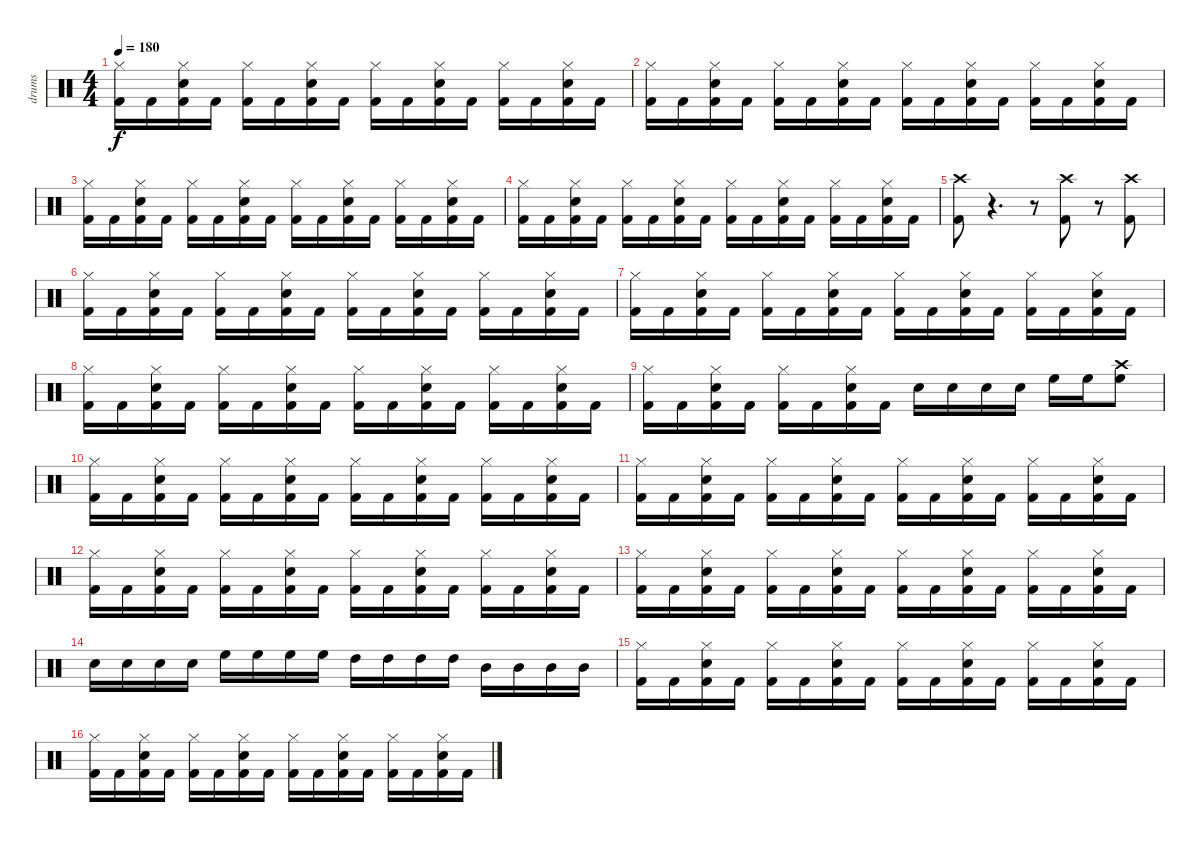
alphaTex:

\track ("drums" "drums") {instrument percussion}
\staff {score}
\articulation defaults
\ts (4 4)
\tempo 180
\clef neutral
\ks c
("Hi-Hat (closed)" "Kick (hit) 2").16{dy f} "Kick (hit) 2".16 ("Snare (hit) 2" "Hi-Hat (closed)" "Kick (hit) 2").16 "Kick (hit) 2".16 ("Hi-Hat (closed)" "Kick (hit) 2").16 "Kick (hit) 2".16 ("Snare (hit) 2" "Hi-Hat (closed)" "Kick (hit) 2").16 "Kick (hit) 2".16 ("Hi-Hat (closed)" "Kick (hit) 2").16 "Kick (hit) 2".16 ("Snare (hit) 2" "Hi-Hat (closed)" "Kick (hit) 2").16 "Kick (hit) 2".16 ("Hi-Hat (closed)" "Kick (hit) 2").16 "Kick (hit) 2".16 ("Snare (hit) 2" "Hi-Hat (closed)" "Kick (hit) 2").16 "Kick (hit) 2".16 |
("Hi-Hat (closed)" "Kick (hit) 2").16 "Kick (hit) 2".16 ("Snare (hit) 2" "Hi-Hat (closed)" "Kick (hit) 2").16 "Kick (hit) 2".16 ("Hi-Hat (closed)" "Kick (hit) 2").16 "Kick (hit) 2".16 ("Snare (hit) 2" "Hi-Hat (closed)" "Kick (hit) 2").16 "Kick (hit) 2".16 ("Hi-Hat (closed)" "Kick (hit) 2").16 "Kick (hit) 2".16 ("Snare (hit) 2" "Hi-Hat (closed)" "Kick (hit) 2").16 "Kick (hit) 2".16 ("Hi-Hat (closed)" "Kick (hit) 2").16 "Kick (hit) 2".16 ("Snare (hit) 2" "Hi-Hat (closed)" "Kick (hit) 2").16 "Kick (hit) 2".16 |
("Hi-Hat (closed)" "Kick (hit) 2").16 "Kick (hit) 2".16 ("Snare (hit) 2" "Hi-Hat (closed)" "Kick (hit) 2").16 "Kick (hit) 2".16 ("Hi-Hat (closed)" "Kick (hit) 2").16 "Kick (hit) 2".16 ("Snare (hit) 2" "Hi-Hat (closed)" "Kick (hit) 2").16 "Kick (hit) 2".16 ("Hi-Hat (closed)" "Kick (hit) 2").16 "Kick (hit) 2".16 ("Snare (hit) 2" "Hi-Hat (closed)" "Kick (hit) 2").16 "Kick (hit) 2".16 ("Hi-Hat (closed)" "Kick (hit) 2").16 "Kick (hit) 2".16 ("Snare (hit) 2" "Hi-Hat (closed)" "Kick (hit) 2").16 "Kick (hit) 2".16 |
("Hi-Hat (closed)" "Kick (hit) 2").16 "Kick (hit) 2".16 ("Snare (hit) 2" "Hi-Hat (closed)" "Kick (hit) 2").16 "Kick (hit) 2".16 ("Hi-Hat (closed)" "Kick (hit) 2").16 "Kick (hit) 2".16 ("Snare (hit) 2" "Hi-Hat (closed)" "Kick (hit) 2").16 "Kick (hit) 2".16 ("Hi-Hat (closed)" "Kick (hit) 2").16 "Kick (hit) 2".16 ("Snare (hit) 2" "Hi-Hat (closed)" "Kick (hit) 2").16 "Kick (hit) 2".16 ("Hi-Hat (closed)" "Kick (hit) 2").16 "Kick (hit) 2".16 ("Snare (hit) 2" "Hi-Hat (closed)" "Kick (hit) 2").16 "Kick (hit) 2".16 |
("Crash high (hit)" "Kick (hit) 2").8 r.4{d} r.8 ("Crash high (hit)" "Kick (hit) 2").8 r.8 ("Crash high (hit)" "Kick (hit) 2").8 |
("Hi-Hat (closed)" "Kick (hit) 2").16 "Kick (hit) 2".16 ("Snare (hit) 2" "Hi-Hat (closed)" "Kick (hit) 2").16 "Kick (hit) 2".16 ("Hi-Hat (closed)" "Kick (hit) 2").16 "Kick (hit) 2".16 ("Snare (hit) 2" "Hi-Hat (closed)" "Kick (hit) 2").16 "Kick (hit) 2".16 ("Hi-Hat (closed)" "Kick (hit) 2").16 "Kick (hit) 2".16 ("Snare (hit) 2" "Hi-Hat (closed)" "Kick (hit) 2").16 "Kick (hit) 2".16 ("Hi-Hat (closed)" "Kick (hit) 2").16 "Kick (hit) 2".16 ("Snare (hit) 2" "Hi-Hat (closed)" "Kick (hit) 2").16 "Kick (hit) 2".16 |
("Hi-Hat (closed)" "Kick (hit) 2").16 "Kick (hit) 2".16 ("Snare (hit) 2" "Hi-Hat (closed)" "Kick (hit) 2").16 "Kick (hit) 2".16 ("Hi-Hat (closed)" "Kick (hit) 2").16 "Kick (hit) 2".16 ("Snare (hit) 2" "Hi-Hat (closed)" "Kick (hit) 2").16 "Kick (hit) 2".16 ("Hi-Hat (closed)" "Kick (hit) 2").16 "Kick (hit) 2".16 ("Snare (hit) 2" "Hi-Hat (closed)" "Kick (hit) 2").16 "Kick (hit) 2".16 ("Hi-Hat (closed)" "Kick (hit) 2").16 "Kick (hit) 2".16 ("Snare (hit) 2" "Hi-Hat (closed)" "Kick (hit) 2").16 "Kick (hit) 2".16 |
("Hi-Hat (closed)" "Kick (hit) 2").16 "Kick (hit) 2".16 ("Snare (hit) 2" "Hi-Hat (closed)" "Kick (hit) 2").16 "Kick (hit) 2".16 ("Hi-Hat (closed)" "Kick (hit) 2").16 "Kick (hit) 2".16 ("Snare (hit) 2" "Hi-Hat (closed)" "Kick (hit) 2").16 "Kick (hit) 2".16 ("Hi-Hat (closed)" "Kick (hit) 2").16 "Kick (hit) 2".16 ("Snare (hit) 2" "Hi-Hat (closed)" "Kick (hit) 2").16 "Kick (hit) 2".16 ("Hi-Hat (closed)" "Kick (hit) 2").16 "Kick (hit) 2".16 ("Snare (hit) 2" "Hi-Hat (closed)" "Kick (hit) 2").16 "Kick (hit) 2".16 |
("Hi-Hat (closed)" "Kick (hit) 2").16 "Kick (hit) 2".16 ("Snare (hit) 2" "Hi-Hat (closed)" "Kick (hit) 2").16 "Kick (hit) 2".16 ("Hi-Hat (closed)" "Kick (hit) 2").16 "Kick (hit) 2".16 ("Snare (hit) 2" "Hi-Hat (closed)" "Kick (hit) 2").16 "Kick (hit) 2".16 "Snare (hit) 2".16 "Snare (hit) 2".16 "Snare (hit) 2".16 "Snare (hit) 2".16 "High Floor Tom (hit)".16 "High Floor Tom (hit)".16 ("Crash high (hit)" "High Floor Tom (hit)").8 |
("Hi-Hat (closed)" "Kick (hit) 2").16 "Kick (hit) 2".16 ("Snare (hit) 2" "Hi-Hat (closed)" "Kick (hit) 2").16 "Kick (hit) 2".16 ("Hi-Hat (closed)" "Kick (hit) 2").16 "Kick (hit) 2".16 ("Snare (hit) 2" "Hi-Hat (closed)" "Kick (hit) 2").16 "Kick (hit) 2".16 ("Hi-Hat (closed)" "Kick (hit) 2").16 "Kick (hit) 2".16 ("Snare (hit) 2" "Hi-Hat (closed)" "Kick (hit) 2").16 "Kick (hit) 2".16 ("Hi-Hat (closed)" "Kick (hit) 2").16 "Kick (hit) 2".16 ("Snare (hit) 2" "Hi-Hat (closed)" "Kick (hit) 2").16 "Kick (hit) 2".16 |
("Hi-Hat (closed)" "Kick (hit) 2").16 "Kick (hit) 2".16 ("Snare (hit) 2" "Hi-Hat (closed)" "Kick (hit) 2").16 "Kick (hit) 2".16 ("Hi-Hat (closed)" "Kick (hit) 2").16 "Kick (hit) 2".16 ("Snare (hit) 2" "Hi-Hat (closed)" "Kick (hit) 2").16 "Kick (hit) 2".16 ("Hi-Hat (closed)" "Kick (hit) 2").16 "Kick (hit) 2".16 ("Snare (hit) 2" "Hi-Hat (closed)" "Kick (hit) 2").16 "Kick (hit) 2".16 ("Hi-Hat (closed)" "Kick (hit) 2").16 "Kick (hit) 2".16 ("Snare (hit) 2" "Hi-Hat (closed)" "Kick (hit) 2").16 "Kick (hit) 2".16 |
("Hi-Hat (closed)" "Kick (hit) 2").16 "Kick (hit) 2".16 ("Snare (hit) 2" "Hi-Hat (closed)" "Kick (hit) 2").16 "Kick (hit) 2".16 ("Hi-Hat (closed)" "Kick (hit) 2").16 "Kick (hit) 2".16 ("Snare (hit) 2" "Hi-Hat (closed)" "Kick (hit) 2").16 "Kick (hit) 2".16 ("Hi-Hat (closed)" "Kick (hit) 2").16 "Kick (hit) 2".16 ("Snare (hit) 2" "Hi-Hat (closed)" "Kick (hit) 2").16 "Kick (hit) 2".16 ("Hi-Hat (closed)" "Kick (hit) 2").16 "Kick (hit) 2".16 ("Snare (hit) 2" "Hi-Hat (closed)" "Kick (hit) 2").16 "Kick (hit) 2".16 |
("Hi-Hat (closed)" "Kick (hit) 2").16 "Kick (hit) 2".16 ("Snare (hit) 2" "Hi-Hat (closed)" "Kick (hit) 2").16 "Kick (hit) 2".16 ("Hi-Hat (closed)" "Kick (hit) 2").16 "Kick (hit) 2".16 ("Snare (hit) 2" "Hi-Hat (closed)" "Kick (hit) 2").16 "Kick (hit) 2".16 ("Hi-Hat (closed)" "Kick (hit) 2").16 "Kick (hit) 2".16 ("Snare (hit) 2" "Hi-Hat (closed)" "Kick (hit) 2").16 "Kick (hit) 2".16 ("Hi-Hat (closed)" "Kick (hit) 2").16 "Kick (hit) 2".16 ("Snare (hit) 2" "Hi-Hat (closed)" "Kick (hit) 2").16 "Kick (hit) 2".16 |
"Snare (hit) 2".16 "Snare (hit) 2".16 "Snare (hit) 2".16 "Snare (hit) 2".16 "High Floor Tom (hit)".16 "High Floor Tom (hit)".16 "High Floor Tom (hit)".16 "High Floor Tom (hit)".16 "High Tom (hit)".16 "High Tom (hit)".16 "High Tom (hit)".16 "High Tom (hit)".16 "Mid Tom (hit)".16 "Mid Tom (hit)".16 "Mid Tom (hit)".16 "Mid Tom (hit)".16 |
("Hi-Hat (closed)" "Kick (hit) 2").16 "Kick (hit) 2".16 ("Snare (hit) 2" "Hi-Hat (closed)" "Kick (hit) 2").16 "Kick (hit) 2".16 ("Hi-Hat (closed)" "Kick (hit) 2").16 "Kick (hit) 2".16 ("Snare (hit) 2" "Hi-Hat (closed)" "Kick (hit) 2").16 "Kick (hit) 2".16 ("Hi-Hat (closed)" "Kick (hit) 2").16 "Kick (hit) 2".16 ("Snare (hit) 2" "Hi-Hat (closed)" "Kick (hit) 2").16 "Kick (hit) 2".16 ("Hi-Hat (closed)" "Kick (hit) 2").16 "Kick (hit) 2".16 ("Snare (hit) 2" "Hi-Hat (closed)" "Kick (hit) 2").16 "Kick (hit) 2".16 |
("Hi-Hat (closed)" "Kick (hit) 2").16 "Kick (hit) 2".16 ("Snare (hit) 2" "Hi-Hat (closed)" "Kick (hit) 2").16 "Kick (hit) 2".16 ("Hi-Hat (closed)" "Kick (hit) 2").16 "Kick (hit) 2".16 ("Snare (hit) 2" "Hi-Hat (closed)" "Kick (hit) 2").16 "Kick (hit) 2".16 ("Hi-Hat (closed)" "Kick (hit) 2").16 "Kick (hit) 2".16 ("Snare (hit) 2" "Hi-Hat (closed)" "Kick (hit) 2").16 "Kick (hit) 2".16 ("Hi-Hat (closed)" "Kick (hit) 2").16 "Kick (hit) 2".16 ("Snare (hit) 2" "Hi-Hat (closed)" "Kick (hit) 2").16 "Kick (hit) 2".16
